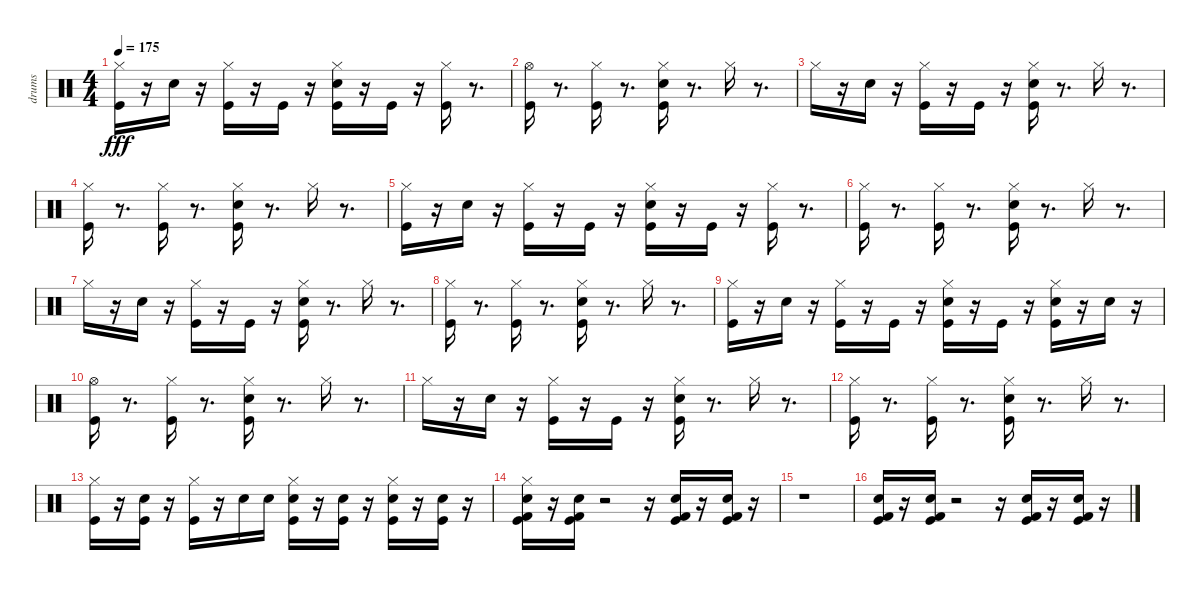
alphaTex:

\track ("drums" "drums") {instrument percussion}
\staff {score}
\articulation defaults
\ts (4 4)
\tempo 175
\clef neutral
\ks c
("Hi-Hat (closed)" "Kick (hit)").16{dy fff} r.16 "Snare (hit) 2".16 r.16 ("Hi-Hat (closed)" "Kick (hit)").16 r.16 "Kick (hit)".16 r.16 ("Hi-Hat (closed)" "Snare (hit) 2" "Kick (hit)").16 r.16 "Kick (hit)".16 r.16 ("Hi-Hat (closed)" "Kick (hit)").16 r.8{d} |
("Kick (hit)" "Hi-Hat (open)").16 r.8{d} ("Kick (hit)" "Hi-Hat (closed)").16 r.8{d} ("Snare (hit) 2" "Kick (hit)" "Hi-Hat (closed)").16 r.8{d} "Hi-Hat (closed)".16 r.8{d} |
"Hi-Hat (closed)".16 r.16 "Snare (hit) 2".16 r.16 ("Hi-Hat (closed)" "Kick (hit)").16 r.16 "Kick (hit)".16 r.16 ("Hi-Hat (closed)" "Snare (hit) 2" "Kick (hit)").16 r.8{d} "Hi-Hat (closed)".16 r.8{d} |
("Kick (hit)" "Hi-Hat (closed)").16 r.8{d} ("Kick (hit)" "Hi-Hat (closed)").16 r.8{d} ("Snare (hit) 2" "Kick (hit)" "Hi-Hat (closed)").16 r.8{d} "Hi-Hat (closed)".16 r.8{d} |
("Hi-Hat (closed)" "Kick (hit)").16 r.16 "Snare (hit) 2".16 r.16 ("Hi-Hat (closed)" "Kick (hit)").16 r.16 "Kick (hit)".16 r.16 ("Hi-Hat (closed)" "Snare (hit) 2" "Kick (hit)").16 r.16 "Kick (hit)".16 r.16 ("Hi-Hat (closed)" "Kick (hit)").16 r.8{d} |
("Kick (hit)" "Hi-Hat (closed)").16 r.8{d} ("Kick (hit)" "Hi-Hat (closed)").16 r.8{d} ("Snare (hit) 2" "Kick (hit)" "Hi-Hat (closed)").16 r.8{d} "Hi-Hat (closed)".16 r.8{d} |
"Hi-Hat (closed)".16 r.16 "Snare (hit) 2".16 r.16 ("Hi-Hat (closed)" "Kick (hit)").16 r.16 "Kick (hit)".16 r.16 ("Hi-Hat (closed)" "Snare (hit) 2" "Kick (hit)").16 r.8{d} "Hi-Hat (closed)".16 r.8{d} |
("Kick (hit)" "Hi-Hat (closed)").16 r.8{d} ("Kick (hit)" "Hi-Hat (closed)").16 r.8{d} ("Snare (hit) 2" "Kick (hit)" "Hi-Hat (closed)").16 r.8{d} "Hi-Hat (closed)".16 r.8{d} |
("Hi-Hat (closed)" "Kick (hit)").16 r.16 "Snare (hit) 2".16 r.16 ("Hi-Hat (closed)" "Kick (hit)").16 r.16 "Kick (hit)".16 r.16 ("Hi-Hat (closed)" "Snare (hit) 2" "Kick (hit)").16 r.16 "Kick (hit)".16 r.16 ("Hi-Hat (closed)" "Kick (hit)" "Snare (hit) 2").16 r.16 "Snare (hit) 2".16 r.16 |
("Kick (hit)" "Hi-Hat (open)").16 r.8{d} ("Kick (hit)" "Hi-Hat (closed)").16 r.8{d} ("Snare (hit) 2" "Kick (hit)" "Hi-Hat (closed)").16 r.8{d} "Hi-Hat (closed)".16 r.8{d} |
"Hi-Hat (closed)".16 r.16 "Snare (hit) 2".16 r.16 ("Hi-Hat (closed)" "Kick (hit)").16 r.16 "Kick (hit)".16 r.16 ("Hi-Hat (closed)" "Snare (hit) 2" "Kick (hit)").16 r.8{d} "Hi-Hat (closed)".16 r.8{d} |
("Kick (hit)" "Hi-Hat (closed)").16 r.8{d} ("Kick (hit)" "Hi-Hat (closed)").16 r.8{d} ("Snare (hit) 2" "Kick (hit)" "Hi-Hat (closed)").16 r.8{d} "Hi-Hat (closed)".16 r.8{d} |
("Hi-Hat (closed)" "Kick (hit)").16 r.16 ("Snare (hit) 2" "Kick (hit)").16 r.16 ("Hi-Hat (closed)" "Kick (hit)").16 r.16 "Snare (hit) 2".16 "Snare (hit) 2".16 ("Hi-Hat (closed)" "Snare (hit) 2" "Kick (hit)").16 r.16 ("Kick (hit)" "Snare (hit) 2").16 r.16 ("Hi-Hat (closed)" "Kick (hit)" "Snare (hit) 2").16 r.16 ("Snare (hit) 2" "Kick (hit)").16 r.16 |
("Snare (hit) 2" "Kick (hit)" "Hi-Hat (closed)" "Kick (hit) 2").16 r.16 ("Snare (hit) 2" "Kick (hit)" "Kick (hit) 2").16 r.2 r.16 ("Snare (hit) 2" "Kick (hit)" "Kick (hit) 2").16 r.16 ("Snare (hit) 2" "Kick (hit)" "Kick (hit) 2").16 r.16 |
r.1 |
("Kick (hit) 2" "Kick (hit)" "Snare (hit) 2").16 r.16 ("Snare (hit) 2" "Kick (hit)" "Kick (hit) 2").16 r.2 r.16 ("Kick (hit) 2" "Kick (hit)" "Snare (hit) 2").16 r.16 ("Snare (hit) 2" "Kick (hit)" "Kick (hit) 2").16 r.16
